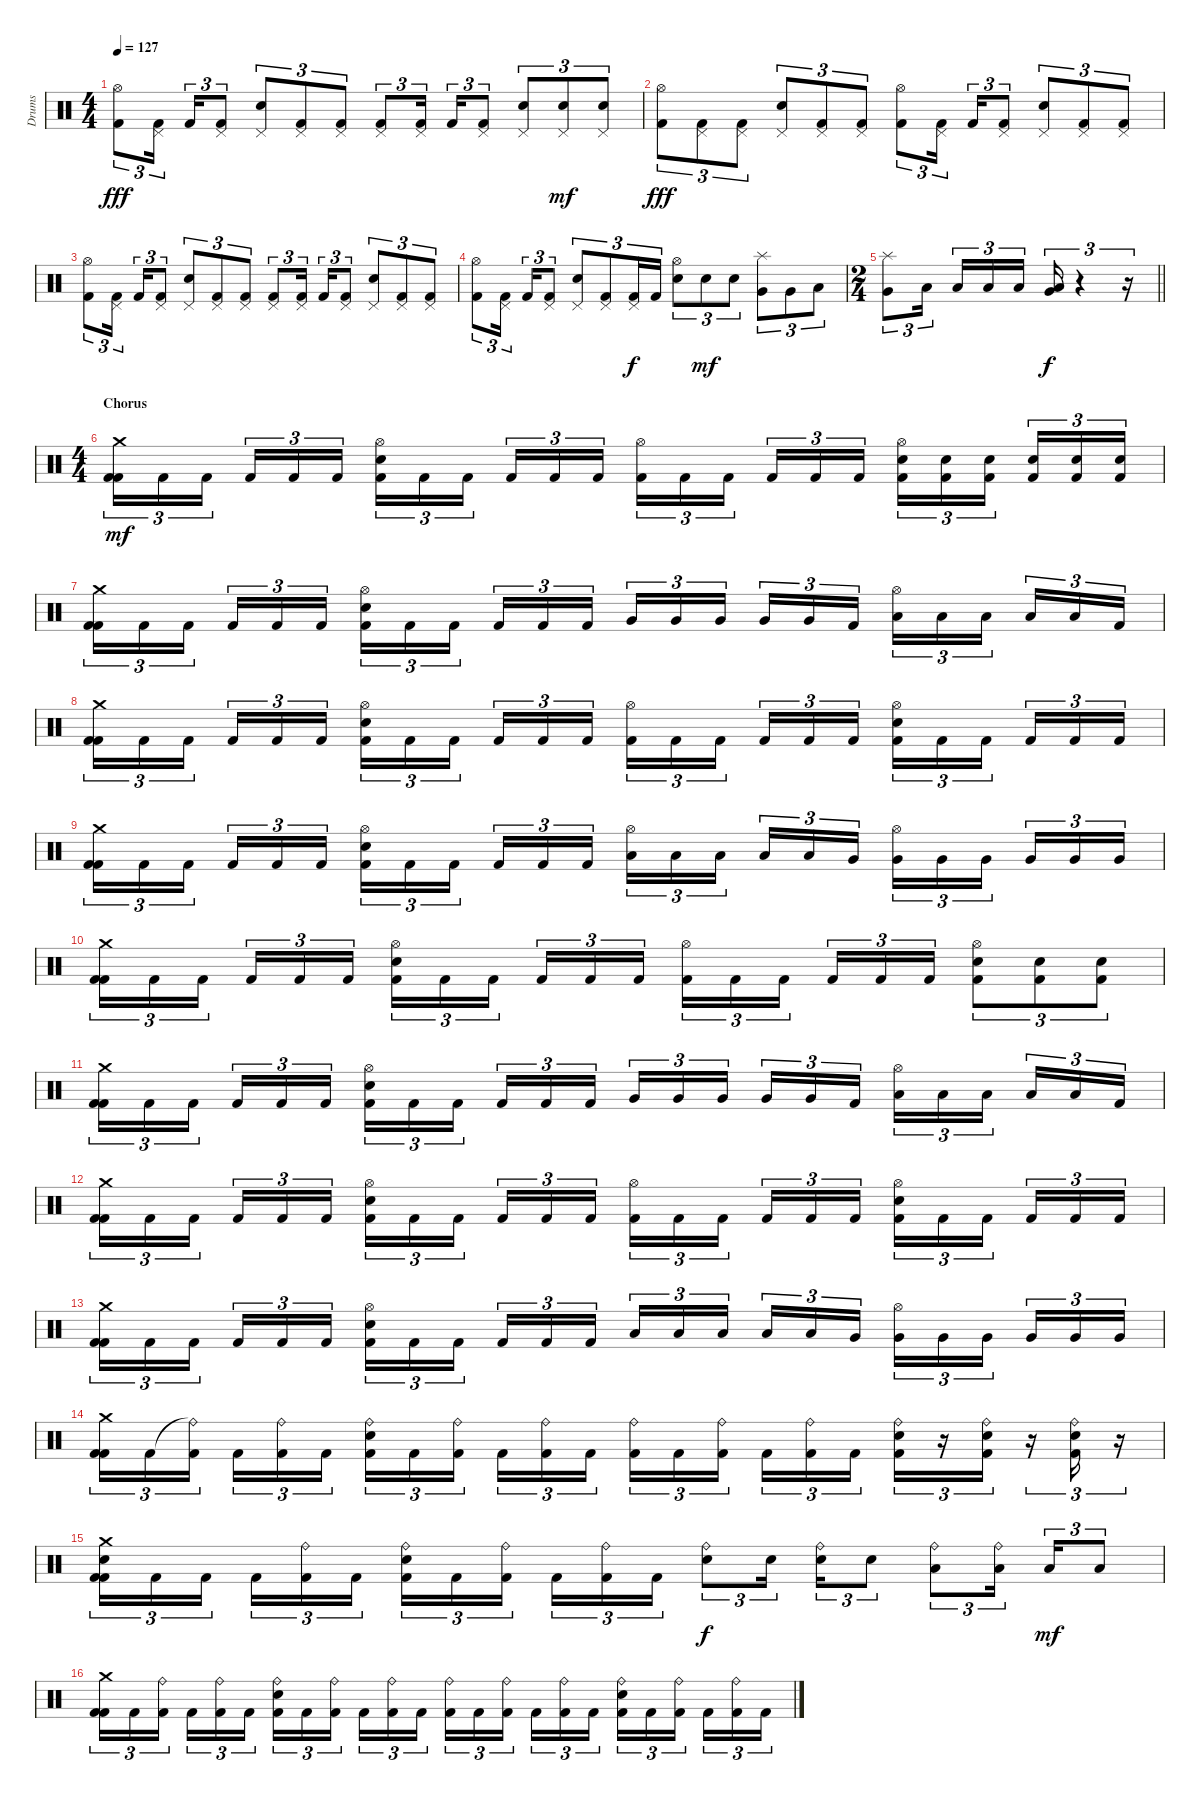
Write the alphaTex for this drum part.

\track ("Drums" "Drums") {instrument percussion}
\staff {score}
\articulation defaults
\ts (4 4)
\tempo 127
\clef neutral
\ks c
("Hi-Hat (open)" "Kick (hit) 2").8{tu (3 2) dy fff} ("Pedal Hi-Hat (hit)" "Kick (hit) 2").16{tu (3 2) beam splitsecondary} "Kick (hit) 2".16{tu (3 2)} ("Pedal Hi-Hat (hit)" "Kick (hit) 2").8{tu (3 2)} ("Pedal Hi-Hat (hit)" "Snare (hit) 2").8{tu (3 2)} ("Pedal Hi-Hat (hit)" "Kick (hit) 2").8{tu (3 2)} ("Pedal Hi-Hat (hit)" "Kick (hit) 2").8{tu (3 2)} ("Pedal Hi-Hat (hit)" "Kick (hit) 2").8{tu (3 2)} ("Pedal Hi-Hat (hit)" "Kick (hit) 2").16{tu (3 2) beam splitsecondary} "Kick (hit) 2".16{tu (3 2)} ("Pedal Hi-Hat (hit)" "Kick (hit) 2").8{tu (3 2)} ("Pedal Hi-Hat (hit)" "Snare (hit) 2").8{tu (3 2)} ("Pedal Hi-Hat (hit)" "Snare (hit) 2").8{tu (3 2) dy mf} ("Pedal Hi-Hat (hit)" "Snare (hit) 2").8{tu (3 2)} |
("Hi-Hat (open)" "Kick (hit) 2").8{tu (3 2) dy fff} ("Pedal Hi-Hat (hit)" "Kick (hit) 2").8{tu (3 2)} ("Pedal Hi-Hat (hit)" "Kick (hit) 2").8{tu (3 2)} ("Pedal Hi-Hat (hit)" "Snare (hit) 2").8{tu (3 2)} ("Pedal Hi-Hat (hit)" "Kick (hit) 2").8{tu (3 2)} ("Pedal Hi-Hat (hit)" "Kick (hit) 2").8{tu (3 2)} ("Hi-Hat (open)" "Kick (hit) 2").8{tu (3 2)} ("Pedal Hi-Hat (hit)" "Kick (hit) 2").16{tu (3 2) beam splitsecondary} "Kick (hit) 2".16{tu (3 2)} ("Pedal Hi-Hat (hit)" "Kick (hit) 2").8{tu (3 2)} ("Pedal Hi-Hat (hit)" "Snare (hit) 2").8{tu (3 2)} ("Pedal Hi-Hat (hit)" "Kick (hit) 2").8{tu (3 2)} ("Pedal Hi-Hat (hit)" "Kick (hit) 2").8{tu (3 2)} |
("Hi-Hat (open)" "Kick (hit) 2").8{tu (3 2)} ("Pedal Hi-Hat (hit)" "Kick (hit) 2").16{tu (3 2) beam splitsecondary} "Kick (hit) 2".16{tu (3 2)} ("Pedal Hi-Hat (hit)" "Kick (hit) 2").8{tu (3 2)} ("Pedal Hi-Hat (hit)" "Snare (hit) 2").8{tu (3 2)} ("Pedal Hi-Hat (hit)" "Kick (hit) 2").8{tu (3 2)} ("Pedal Hi-Hat (hit)" "Kick (hit) 2").8{tu (3 2)} ("Pedal Hi-Hat (hit)" "Kick (hit) 2").8{tu (3 2)} ("Pedal Hi-Hat (hit)" "Kick (hit) 2").16{tu (3 2) beam splitsecondary} "Kick (hit) 2".16{tu (3 2)} ("Pedal Hi-Hat (hit)" "Kick (hit) 2").8{tu (3 2)} ("Pedal Hi-Hat (hit)" "Snare (hit) 2").8{tu (3 2)} ("Pedal Hi-Hat (hit)" "Kick (hit) 2").8{tu (3 2)} ("Pedal Hi-Hat (hit)" "Kick (hit) 2").8{tu (3 2)} |
("Hi-Hat (open)" "Kick (hit) 2").8{tu (3 2)} ("Pedal Hi-Hat (hit)" "Kick (hit) 2").16{tu (3 2) beam splitsecondary} "Kick (hit) 2".16{tu (3 2)} ("Pedal Hi-Hat (hit)" "Kick (hit) 2").8{tu (3 2)} ("Pedal Hi-Hat (hit)" "Snare (hit) 2").8{tu (3 2)} ("Pedal Hi-Hat (hit)" "Kick (hit) 2").8{tu (3 2)} ("Pedal Hi-Hat (hit)" "Kick (hit) 2").16{tu (3 2) dy f} "Kick (hit) 2".16{tu (3 2)} ("Hi-Hat (open)" "Snare (hit) 2").8{tu (3 2)} "Snare (hit) 2".8{tu (3 2) dy mf} "Snare (hit) 2".8{tu (3 2)} ("Splash (hit)" "Very Low Tom (hit)").8{tu (3 2)} "Very Low Tom (hit)".8{tu (3 2)} "Low Floor Tom (hit)".8{tu (3 2)} |
\ts (2 4)
\barLineRight lightlight
("Splash (hit)" "Very Low Tom (hit)").8{tu (3 2)} "Low Floor Tom (hit)".16{tu (3 2) beam splitsecondary} "Low Floor Tom (hit)".16{tu (3 2)} "Low Floor Tom (hit)".16{tu (3 2)} "Low Floor Tom (hit)".16{tu (3 2)} ("Very Low Tom (hit)" "Low Floor Tom (hit)").16{tu (3 2) bd 120 dy f} r.4{tu (3 2)} r.16{tu (3 2)} |
\ts (4 4)
\section ("" "Chorus")
("Crash medium (hit)" "Kick (hit) 2" "Kick (hit) 2").16{tu (3 2) dy mf} "Kick (hit) 2".16{tu (3 2)} "Kick (hit) 2".16{tu (3 2) beam splitsecondary} "Kick (hit) 2".16{tu (3 2)} "Kick (hit) 2".16{tu (3 2)} "Kick (hit) 2".16{tu (3 2)} ("Hi-Hat (open)" "Snare (hit) 2" "Kick (hit) 2").16{tu (3 2)} "Kick (hit) 2".16{tu (3 2)} "Kick (hit) 2".16{tu (3 2) beam splitsecondary} "Kick (hit) 2".16{tu (3 2)} "Kick (hit) 2".16{tu (3 2)} "Kick (hit) 2".16{tu (3 2)} ("Hi-Hat (open)" "Kick (hit) 2").16{tu (3 2)} "Kick (hit) 2".16{tu (3 2)} "Kick (hit) 2".16{tu (3 2) beam splitsecondary} "Kick (hit) 2".16{tu (3 2)} "Kick (hit) 2".16{tu (3 2)} "Kick (hit) 2".16{tu (3 2)} ("Hi-Hat (open)" "Snare (hit) 2" "Kick (hit) 2").16{tu (3 2)} ("Snare (hit) 2" "Kick (hit) 2").16{tu (3 2)} ("Snare (hit) 2" "Kick (hit) 2").16{tu (3 2) beam splitsecondary} ("Snare (hit) 2" "Kick (hit) 2").16{tu (3 2)} ("Snare (hit) 2" "Kick (hit) 2").16{tu (3 2)} ("Snare (hit) 2" "Kick (hit) 2").16{tu (3 2)} |
("Crash medium (hit)" "Kick (hit) 2" "Kick (hit) 2").16{tu (3 2)} "Kick (hit) 2".16{tu (3 2)} "Kick (hit) 2".16{tu (3 2) beam splitsecondary} "Kick (hit) 2".16{tu (3 2)} "Kick (hit) 2".16{tu (3 2)} "Kick (hit) 2".16{tu (3 2)} ("Hi-Hat (open)" "Snare (hit) 2" "Kick (hit) 2").16{tu (3 2)} "Kick (hit) 2".16{tu (3 2)} "Kick (hit) 2".16{tu (3 2) beam splitsecondary} "Kick (hit) 2".16{tu (3 2)} "Kick (hit) 2".16{tu (3 2)} "Kick (hit) 2".16{tu (3 2)} "Very Low Tom (hit)".16{tu (3 2)} "Very Low Tom (hit)".16{tu (3 2)} "Very Low Tom (hit)".16{tu (3 2) beam splitsecondary} "Very Low Tom (hit)".16{tu (3 2)} "Very Low Tom (hit)".16{tu (3 2)} "Kick (hit) 2".16{tu (3 2)} ("Hi-Hat (open)" "Low Floor Tom (hit)").16{tu (3 2)} "Low Floor Tom (hit)".16{tu (3 2)} "Low Floor Tom (hit)".16{tu (3 2) beam splitsecondary} "Low Floor Tom (hit)".16{tu (3 2)} "Low Floor Tom (hit)".16{tu (3 2)} "Kick (hit) 2".16{tu (3 2)} |
("Crash medium (hit)" "Kick (hit) 2" "Kick (hit) 2").16{tu (3 2)} "Kick (hit) 2".16{tu (3 2)} "Kick (hit) 2".16{tu (3 2) beam splitsecondary} "Kick (hit) 2".16{tu (3 2)} "Kick (hit) 2".16{tu (3 2)} "Kick (hit) 2".16{tu (3 2)} ("Hi-Hat (open)" "Snare (hit) 2" "Kick (hit) 2").16{tu (3 2)} "Kick (hit) 2".16{tu (3 2)} "Kick (hit) 2".16{tu (3 2) beam splitsecondary} "Kick (hit) 2".16{tu (3 2)} "Kick (hit) 2".16{tu (3 2)} "Kick (hit) 2".16{tu (3 2)} ("Hi-Hat (open)" "Kick (hit) 2").16{tu (3 2)} "Kick (hit) 2".16{tu (3 2)} "Kick (hit) 2".16{tu (3 2) beam splitsecondary} "Kick (hit) 2".16{tu (3 2)} "Kick (hit) 2".16{tu (3 2)} "Kick (hit) 2".16{tu (3 2)} ("Hi-Hat (open)" "Snare (hit) 2" "Kick (hit) 2").16{tu (3 2)} "Kick (hit) 2".16{tu (3 2)} "Kick (hit) 2".16{tu (3 2) beam splitsecondary} "Kick (hit) 2".16{tu (3 2)} "Kick (hit) 2".16{tu (3 2)} "Kick (hit) 2".16{tu (3 2)} |
("Crash medium (hit)" "Kick (hit) 2" "Kick (hit) 2").16{tu (3 2)} "Kick (hit) 2".16{tu (3 2)} "Kick (hit) 2".16{tu (3 2) beam splitsecondary} "Kick (hit) 2".16{tu (3 2)} "Kick (hit) 2".16{tu (3 2)} "Kick (hit) 2".16{tu (3 2)} ("Hi-Hat (open)" "Snare (hit) 2" "Kick (hit) 2").16{tu (3 2)} "Kick (hit) 2".16{tu (3 2)} "Kick (hit) 2".16{tu (3 2) beam splitsecondary} "Kick (hit) 2".16{tu (3 2)} "Kick (hit) 2".16{tu (3 2)} "Kick (hit) 2".16{tu (3 2)} ("Hi-Hat (open)" "Low Tom (hit)").16{tu (3 2)} "Low Tom (hit)".16{tu (3 2)} "Low Tom (hit)".16{tu (3 2) beam splitsecondary} "Low Tom (hit)".16{tu (3 2)} "Low Tom (hit)".16{tu (3 2)} "Very Low Tom (hit)".16{tu (3 2)} ("Hi-Hat (open)" "Very Low Tom (hit)").16{tu (3 2)} "Very Low Tom (hit)".16{tu (3 2)} "Very Low Tom (hit)".16{tu (3 2) beam splitsecondary} "Very Low Tom (hit)".16{tu (3 2)} "Very Low Tom (hit)".16{tu (3 2)} "Very Low Tom (hit)".16{tu (3 2)} |
("Crash medium (hit)" "Kick (hit) 2" "Kick (hit) 2").16{tu (3 2)} "Kick (hit) 2".16{tu (3 2)} "Kick (hit) 2".16{tu (3 2) beam splitsecondary} "Kick (hit) 2".16{tu (3 2)} "Kick (hit) 2".16{tu (3 2)} "Kick (hit) 2".16{tu (3 2)} ("Hi-Hat (open)" "Snare (hit) 2" "Kick (hit) 2").16{tu (3 2)} "Kick (hit) 2".16{tu (3 2)} "Kick (hit) 2".16{tu (3 2) beam splitsecondary} "Kick (hit) 2".16{tu (3 2)} "Kick (hit) 2".16{tu (3 2)} "Kick (hit) 2".16{tu (3 2)} ("Hi-Hat (open)" "Kick (hit) 2").16{tu (3 2)} "Kick (hit) 2".16{tu (3 2)} "Kick (hit) 2".16{tu (3 2) beam splitsecondary} "Kick (hit) 2".16{tu (3 2)} "Kick (hit) 2".16{tu (3 2)} "Kick (hit) 2".16{tu (3 2)} ("Hi-Hat (open)" "Snare (hit) 2" "Kick (hit) 2").8{tu (3 2)} ("Snare (hit) 2" "Kick (hit) 2").8{tu (3 2)} ("Snare (hit) 2" "Kick (hit) 2").8{tu (3 2)} |
("Crash medium (hit)" "Kick (hit) 2" "Kick (hit) 2").16{tu (3 2)} "Kick (hit) 2".16{tu (3 2)} "Kick (hit) 2".16{tu (3 2) beam splitsecondary} "Kick (hit) 2".16{tu (3 2)} "Kick (hit) 2".16{tu (3 2)} "Kick (hit) 2".16{tu (3 2)} ("Hi-Hat (open)" "Snare (hit) 2" "Kick (hit) 2").16{tu (3 2)} "Kick (hit) 2".16{tu (3 2)} "Kick (hit) 2".16{tu (3 2) beam splitsecondary} "Kick (hit) 2".16{tu (3 2)} "Kick (hit) 2".16{tu (3 2)} "Kick (hit) 2".16{tu (3 2)} "Very Low Tom (hit)".16{tu (3 2)} "Very Low Tom (hit)".16{tu (3 2)} "Very Low Tom (hit)".16{tu (3 2) beam splitsecondary} "Very Low Tom (hit)".16{tu (3 2)} "Very Low Tom (hit)".16{tu (3 2)} "Kick (hit) 2".16{tu (3 2)} ("Hi-Hat (open)" "Low Floor Tom (hit)").16{tu (3 2)} "Low Floor Tom (hit)".16{tu (3 2)} "Low Floor Tom (hit)".16{tu (3 2) beam splitsecondary} "Low Floor Tom (hit)".16{tu (3 2)} "Low Floor Tom (hit)".16{tu (3 2)} "Kick (hit) 2".16{tu (3 2)} |
("Crash medium (hit)" "Kick (hit) 2" "Kick (hit) 2").16{tu (3 2)} "Kick (hit) 2".16{tu (3 2)} "Kick (hit) 2".16{tu (3 2) beam splitsecondary} "Kick (hit) 2".16{tu (3 2)} "Kick (hit) 2".16{tu (3 2)} "Kick (hit) 2".16{tu (3 2)} ("Hi-Hat (open)" "Snare (hit) 2" "Kick (hit) 2").16{tu (3 2)} "Kick (hit) 2".16{tu (3 2)} "Kick (hit) 2".16{tu (3 2) beam splitsecondary} "Kick (hit) 2".16{tu (3 2)} "Kick (hit) 2".16{tu (3 2)} "Kick (hit) 2".16{tu (3 2)} ("Hi-Hat (open)" "Kick (hit) 2").16{tu (3 2)} "Kick (hit) 2".16{tu (3 2)} "Kick (hit) 2".16{tu (3 2) beam splitsecondary} "Kick (hit) 2".16{tu (3 2)} "Kick (hit) 2".16{tu (3 2)} "Kick (hit) 2".16{tu (3 2)} ("Hi-Hat (open)" "Snare (hit) 2" "Kick (hit) 2").16{tu (3 2)} "Kick (hit) 2".16{tu (3 2)} "Kick (hit) 2".16{tu (3 2) beam splitsecondary} "Kick (hit) 2".16{tu (3 2)} "Kick (hit) 2".16{tu (3 2)} "Kick (hit) 2".16{tu (3 2)} |
("Crash medium (hit)" "Kick (hit) 2" "Kick (hit) 2").16{tu (3 2)} "Kick (hit) 2".16{tu (3 2)} "Kick (hit) 2".16{tu (3 2) beam splitsecondary} "Kick (hit) 2".16{tu (3 2)} "Kick (hit) 2".16{tu (3 2)} "Kick (hit) 2".16{tu (3 2)} ("Hi-Hat (open)" "Snare (hit) 2" "Kick (hit) 2").16{tu (3 2)} "Kick (hit) 2".16{tu (3 2)} "Kick (hit) 2".16{tu (3 2) beam splitsecondary} "Kick (hit) 2".16{tu (3 2)} "Kick (hit) 2".16{tu (3 2)} "Kick (hit) 2".16{tu (3 2)} "Low Tom (hit)".16{tu (3 2)} "Low Tom (hit)".16{tu (3 2)} "Low Tom (hit)".16{tu (3 2) beam splitsecondary} "Low Tom (hit)".16{tu (3 2)} "Low Tom (hit)".16{tu (3 2)} "Very Low Tom (hit)".16{tu (3 2)} ("Hi-Hat (open)" "Very Low Tom (hit)").16{tu (3 2)} "Very Low Tom (hit)".16{tu (3 2)} "Very Low Tom (hit)".16{tu (3 2) beam splitsecondary} "Very Low Tom (hit)".16{tu (3 2)} "Very Low Tom (hit)".16{tu (3 2)} "Very Low Tom (hit)".16{tu (3 2)} |
("Crash medium (hit)" "Kick (hit) 2" "Kick (hit) 2").16{tu (3 2)} "Kick (hit) 2".16{tu (3 2)} ("Ride (bell)"{t} "Kick (hit) 2").16{tu (3 2) beam splitsecondary} "Kick (hit) 2".16{tu (3 2)} ("Ride (bell)" "Kick (hit) 2").16{tu (3 2)} "Kick (hit) 2".16{tu (3 2)} ("Ride (bell)" "Snare (hit) 2" "Kick (hit) 2").16{tu (3 2)} "Kick (hit) 2".16{tu (3 2)} ("Ride (bell)" "Kick (hit) 2").16{tu (3 2) beam splitsecondary} "Kick (hit) 2".16{tu (3 2)} ("Ride (bell)" "Kick (hit) 2").16{tu (3 2)} "Kick (hit) 2".16{tu (3 2)} ("Ride (bell)" "Kick (hit) 2").16{tu (3 2)} "Kick (hit) 2".16{tu (3 2)} ("Ride (bell)" "Kick (hit) 2").16{tu (3 2) beam splitsecondary} "Kick (hit) 2".16{tu (3 2)} ("Ride (bell)" "Kick (hit) 2").16{tu (3 2)} "Kick (hit) 2".16{tu (3 2)} ("Ride (bell)" "Snare (hit) 2" "Kick (hit) 2").16{tu (3 2)} r.16{tu (3 2)} ("Ride (bell)" "Snare (hit) 2" "Kick (hit) 2").16{tu (3 2)} r.16{tu (3 2)} ("Ride (bell)" "Snare (hit) 2" "Kick (hit) 2").16{tu (3 2)} r.16{tu (3 2)} |
("Crash medium (hit)" "Snare (hit) 2" "Kick (hit) 2" "Kick (hit) 2").16{tu (3 2)} "Kick (hit) 2".16{tu (3 2)} "Kick (hit) 2".16{tu (3 2) beam splitsecondary} "Kick (hit) 2".16{tu (3 2)} ("Ride (bell)" "Kick (hit) 2").16{tu (3 2)} "Kick (hit) 2".16{tu (3 2)} ("Ride (bell)" "Snare (hit) 2" "Kick (hit) 2").16{tu (3 2)} "Kick (hit) 2".16{tu (3 2)} ("Ride (bell)" "Kick (hit) 2").16{tu (3 2) beam splitsecondary} "Kick (hit) 2".16{tu (3 2)} ("Ride (bell)" "Kick (hit) 2").16{tu (3 2)} "Kick (hit) 2".16{tu (3 2)} ("Ride (bell)" "Snare (hit) 2").8{tu (3 2) dy f} "Snare (hit) 2".16{tu (3 2) beam splitsecondary} ("Ride (bell)" "Snare (hit) 2").16{tu (3 2)} "Snare (hit) 2".8{tu (3 2)} ("Ride (bell)" "Low Floor Tom (hit)").8{tu (3 2)} ("Ride (bell)" "Low Floor Tom (hit)").16{tu (3 2) beam splitsecondary} "Low Floor Tom (hit)".16{tu (3 2) dy mf} "Low Floor Tom (hit)".8{tu (3 2)} |
("Crash medium (hit)" "Kick (hit) 2" "Kick (hit) 2").16{tu (3 2)} "Kick (hit) 2".16{tu (3 2)} ("Ride (bell)" "Kick (hit) 2").16{tu (3 2) beam splitsecondary} "Kick (hit) 2".16{tu (3 2)} ("Ride (bell)" "Kick (hit) 2").16{tu (3 2)} "Kick (hit) 2".16{tu (3 2)} ("Ride (bell)" "Snare (hit) 2" "Kick (hit) 2").16{tu (3 2)} "Kick (hit) 2".16{tu (3 2)} ("Ride (bell)" "Kick (hit) 2").16{tu (3 2) beam splitsecondary} "Kick (hit) 2".16{tu (3 2)} ("Ride (bell)" "Kick (hit) 2").16{tu (3 2)} "Kick (hit) 2".16{tu (3 2)} ("Ride (bell)" "Kick (hit) 2").16{tu (3 2)} "Kick (hit) 2".16{tu (3 2)} ("Ride (bell)" "Kick (hit) 2").16{tu (3 2) beam splitsecondary} "Kick (hit) 2".16{tu (3 2)} ("Ride (bell)" "Kick (hit) 2").16{tu (3 2)} "Kick (hit) 2".16{tu (3 2)} ("Ride (bell)" "Snare (hit) 2" "Kick (hit) 2").16{tu (3 2)} "Kick (hit) 2".16{tu (3 2)} ("Ride (bell)" "Kick (hit) 2").16{tu (3 2) beam splitsecondary} "Kick (hit) 2".16{tu (3 2)} ("Ride (bell)" "Kick (hit) 2").16{tu (3 2)} "Kick (hit) 2".16{tu (3 2)}
